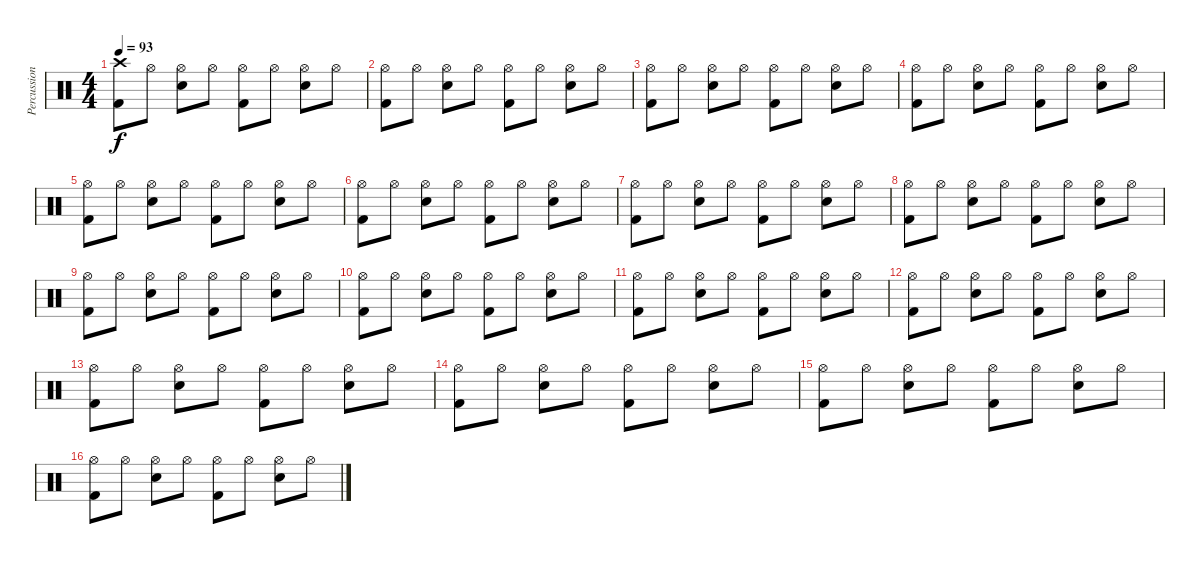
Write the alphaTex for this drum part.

\track ("Percussion" "Percussion") {instrument percussion}
\staff {score}
\articulation defaults
\ts (4 4)
\tempo 93
\clef neutral
\ks c
("Crash high (hit)" "Kick (hit) 2").8{dy f} "Hi-Hat (open)".8 ("Hi-Hat (open)" "Snare (hit) 2").8 "Hi-Hat (open)".8 ("Hi-Hat (open)" "Kick (hit) 2").8 "Hi-Hat (open)".8 ("Hi-Hat (open)" "Snare (hit) 2").8 "Hi-Hat (open)".8 |
("Hi-Hat (open)" "Kick (hit) 2").8 "Hi-Hat (open)".8 ("Hi-Hat (open)" "Snare (hit) 2").8 "Hi-Hat (open)".8 ("Hi-Hat (open)" "Kick (hit) 2").8 "Hi-Hat (open)".8 ("Hi-Hat (open)" "Snare (hit) 2").8 "Hi-Hat (open)".8 |
("Hi-Hat (open)" "Kick (hit) 2").8 "Hi-Hat (open)".8 ("Hi-Hat (open)" "Snare (hit) 2").8 "Hi-Hat (open)".8 ("Hi-Hat (open)" "Kick (hit) 2").8 "Hi-Hat (open)".8 ("Hi-Hat (open)" "Snare (hit) 2").8 "Hi-Hat (open)".8 |
("Hi-Hat (open)" "Kick (hit) 2").8 "Hi-Hat (open)".8 ("Hi-Hat (open)" "Snare (hit) 2").8 "Hi-Hat (open)".8 ("Hi-Hat (open)" "Kick (hit) 2").8 "Hi-Hat (open)".8 ("Hi-Hat (open)" "Snare (hit) 2").8 "Hi-Hat (open)".8 |
("Hi-Hat (open)" "Kick (hit) 2").8 "Hi-Hat (open)".8 ("Hi-Hat (open)" "Snare (hit) 2").8 "Hi-Hat (open)".8 ("Hi-Hat (open)" "Kick (hit) 2").8 "Hi-Hat (open)".8 ("Hi-Hat (open)" "Snare (hit) 2").8 "Hi-Hat (open)".8 |
("Hi-Hat (open)" "Kick (hit) 2").8 "Hi-Hat (open)".8 ("Hi-Hat (open)" "Snare (hit) 2").8 "Hi-Hat (open)".8 ("Hi-Hat (open)" "Kick (hit) 2").8 "Hi-Hat (open)".8 ("Hi-Hat (open)" "Snare (hit) 2").8 "Hi-Hat (open)".8 |
("Hi-Hat (open)" "Kick (hit) 2").8 "Hi-Hat (open)".8 ("Hi-Hat (open)" "Snare (hit) 2").8 "Hi-Hat (open)".8 ("Hi-Hat (open)" "Kick (hit) 2").8 "Hi-Hat (open)".8 ("Hi-Hat (open)" "Snare (hit) 2").8 "Hi-Hat (open)".8 |
("Hi-Hat (open)" "Kick (hit) 2").8 "Hi-Hat (open)".8 ("Hi-Hat (open)" "Snare (hit) 2").8 "Hi-Hat (open)".8 ("Hi-Hat (open)" "Kick (hit) 2").8 "Hi-Hat (open)".8 ("Hi-Hat (open)" "Snare (hit) 2").8 "Hi-Hat (open)".8 |
("Hi-Hat (open)" "Kick (hit) 2").8 "Hi-Hat (open)".8 ("Hi-Hat (open)" "Snare (hit) 2").8 "Hi-Hat (open)".8 ("Hi-Hat (open)" "Kick (hit) 2").8 "Hi-Hat (open)".8 ("Hi-Hat (open)" "Snare (hit) 2").8 "Hi-Hat (open)".8 |
("Hi-Hat (open)" "Kick (hit) 2").8 "Hi-Hat (open)".8 ("Hi-Hat (open)" "Snare (hit) 2").8 "Hi-Hat (open)".8 ("Hi-Hat (open)" "Kick (hit) 2").8 "Hi-Hat (open)".8 ("Hi-Hat (open)" "Snare (hit) 2").8 "Hi-Hat (open)".8 |
("Hi-Hat (open)" "Kick (hit) 2").8 "Hi-Hat (open)".8 ("Hi-Hat (open)" "Snare (hit) 2").8 "Hi-Hat (open)".8 ("Hi-Hat (open)" "Kick (hit) 2").8 "Hi-Hat (open)".8 ("Hi-Hat (open)" "Snare (hit) 2").8 "Hi-Hat (open)".8 |
("Hi-Hat (open)" "Kick (hit) 2").8 "Hi-Hat (open)".8 ("Hi-Hat (open)" "Snare (hit) 2").8 "Hi-Hat (open)".8 ("Hi-Hat (open)" "Kick (hit) 2").8 "Hi-Hat (open)".8 ("Hi-Hat (open)" "Snare (hit) 2").8 "Hi-Hat (open)".8 |
("Hi-Hat (open)" "Kick (hit) 2").8 "Hi-Hat (open)".8 ("Hi-Hat (open)" "Snare (hit) 2").8 "Hi-Hat (open)".8 ("Hi-Hat (open)" "Kick (hit) 2").8 "Hi-Hat (open)".8 ("Hi-Hat (open)" "Snare (hit) 2").8 "Hi-Hat (open)".8 |
("Hi-Hat (open)" "Kick (hit) 2").8 "Hi-Hat (open)".8 ("Hi-Hat (open)" "Snare (hit) 2").8 "Hi-Hat (open)".8 ("Hi-Hat (open)" "Kick (hit) 2").8 "Hi-Hat (open)".8 ("Hi-Hat (open)" "Snare (hit) 2").8 "Hi-Hat (open)".8 |
("Hi-Hat (open)" "Kick (hit) 2").8 "Hi-Hat (open)".8 ("Hi-Hat (open)" "Snare (hit) 2").8 "Hi-Hat (open)".8 ("Hi-Hat (open)" "Kick (hit) 2").8 "Hi-Hat (open)".8 ("Hi-Hat (open)" "Snare (hit) 2").8 "Hi-Hat (open)".8 |
("Hi-Hat (open)" "Kick (hit) 2").8 "Hi-Hat (open)".8 ("Hi-Hat (open)" "Snare (hit) 2").8 "Hi-Hat (open)".8 ("Hi-Hat (open)" "Kick (hit) 2").8 "Hi-Hat (open)".8 ("Hi-Hat (open)" "Snare (hit) 2").8 "Hi-Hat (open)".8
